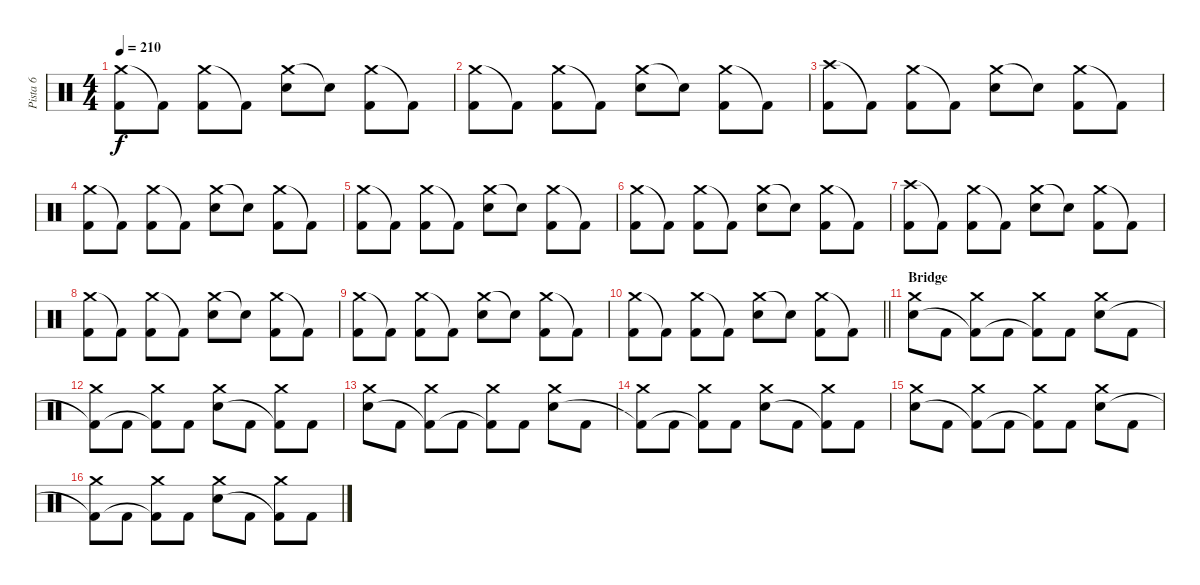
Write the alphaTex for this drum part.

\track ("Pista 6" "Pista 6") {instrument percussion}
\staff {score}
\articulation defaults
\ts (4 4)
\tempo 210
\clef neutral
\ks c
("Crash medium (hit)" "Kick (hit) 2").8{dy f} "Kick (hit) 2"{t}.8 ("Crash medium (hit)" "Kick (hit) 2").8 "Kick (hit) 2"{t}.8 ("Crash medium (hit)" "Electric Snare (hit)").8 "Electric Snare (hit)"{t}.8 ("Crash medium (hit)" "Kick (hit) 2").8 "Kick (hit) 2"{t}.8 |
("Crash medium (hit)" "Kick (hit) 2").8 "Kick (hit) 2"{t}.8 ("Crash medium (hit)" "Kick (hit) 2").8 "Kick (hit) 2"{t}.8 ("Crash medium (hit)" "Electric Snare (hit)").8 "Electric Snare (hit)"{t}.8 ("Crash medium (hit)" "Kick (hit) 2").8 "Kick (hit) 2"{t}.8 |
("Crash high (hit)" "Kick (hit) 2").8 "Kick (hit) 2"{t}.8 ("Crash medium (hit)" "Kick (hit) 2").8 "Kick (hit) 2"{t}.8 ("Crash medium (hit)" "Electric Snare (hit)").8 "Electric Snare (hit)"{t}.8 ("Crash medium (hit)" "Kick (hit) 2").8 "Kick (hit) 2"{t}.8 |
("Crash medium (hit)" "Kick (hit) 2").8 "Kick (hit) 2"{t}.8 ("Crash medium (hit)" "Kick (hit) 2").8 "Kick (hit) 2"{t}.8 ("Crash medium (hit)" "Electric Snare (hit)").8 "Electric Snare (hit)"{t}.8 ("Crash medium (hit)" "Kick (hit) 2").8 "Kick (hit) 2"{t}.8 |
("Crash medium (hit)" "Kick (hit) 2").8 "Kick (hit) 2"{t}.8 ("Crash medium (hit)" "Kick (hit) 2").8 "Kick (hit) 2"{t}.8 ("Crash medium (hit)" "Electric Snare (hit)").8 "Electric Snare (hit)"{t}.8 ("Crash medium (hit)" "Kick (hit) 2").8 "Kick (hit) 2"{t}.8 |
("Crash medium (hit)" "Kick (hit) 2").8 "Kick (hit) 2"{t}.8 ("Crash medium (hit)" "Kick (hit) 2").8 "Kick (hit) 2"{t}.8 ("Crash medium (hit)" "Electric Snare (hit)").8 "Electric Snare (hit)"{t}.8 ("Crash medium (hit)" "Kick (hit) 2").8 "Kick (hit) 2"{t}.8 |
("Crash high (hit)" "Kick (hit) 2").8 "Kick (hit) 2"{t}.8 ("Crash medium (hit)" "Kick (hit) 2").8 "Kick (hit) 2"{t}.8 ("Crash medium (hit)" "Electric Snare (hit)").8 "Electric Snare (hit)"{t}.8 ("Crash medium (hit)" "Kick (hit) 2").8 "Kick (hit) 2"{t}.8 |
("Crash medium (hit)" "Kick (hit) 2").8 "Kick (hit) 2"{t}.8 ("Crash medium (hit)" "Kick (hit) 2").8 "Kick (hit) 2"{t}.8 ("Crash medium (hit)" "Electric Snare (hit)").8 "Electric Snare (hit)"{t}.8 ("Crash medium (hit)" "Kick (hit) 2").8 "Kick (hit) 2"{t}.8 |
("Crash medium (hit)" "Kick (hit) 2").8 "Kick (hit) 2"{t}.8 ("Crash medium (hit)" "Kick (hit) 2").8 "Kick (hit) 2"{t}.8 ("Crash medium (hit)" "Electric Snare (hit)").8 "Electric Snare (hit)"{t}.8 ("Crash medium (hit)" "Kick (hit) 2").8 "Kick (hit) 2"{t}.8 |
\barLineRight lightlight
("Crash medium (hit)" "Kick (hit) 2").8 "Kick (hit) 2"{t}.8 ("Crash medium (hit)" "Kick (hit) 2").8 "Kick (hit) 2"{t}.8 ("Crash medium (hit)" "Electric Snare (hit)").8 "Electric Snare (hit)"{t}.8 ("Crash medium (hit)" "Kick (hit) 2").8 "Kick (hit) 2"{t}.8 |
\section ("" "Bridge")
("Crash medium (hit)" "Electric Snare (hit)").8 "Kick (hit) 2".8 ("Crash medium (hit)" "Kick (hit) 2"{t}).8 "Kick (hit) 2".8 ("Crash medium (hit)" "Kick (hit) 2"{t}).8 "Kick (hit) 2".8 ("Crash medium (hit)" "Electric Snare (hit)").8 "Kick (hit) 2".8 |
("Crash medium (hit)" "Kick (hit) 2"{t}).8 "Kick (hit) 2".8 ("Crash medium (hit)" "Kick (hit) 2"{t}).8 "Kick (hit) 2".8 ("Crash medium (hit)" "Electric Snare (hit)").8 "Kick (hit) 2".8 ("Crash medium (hit)" "Kick (hit) 2"{t}).8 "Kick (hit) 2".8 |
("Crash medium (hit)" "Electric Snare (hit)").8 "Kick (hit) 2".8 ("Crash medium (hit)" "Kick (hit) 2"{t}).8 "Kick (hit) 2".8 ("Crash medium (hit)" "Kick (hit) 2"{t}).8 "Kick (hit) 2".8 ("Crash medium (hit)" "Electric Snare (hit)").8 "Kick (hit) 2".8 |
("Crash medium (hit)" "Kick (hit) 2"{t}).8 "Kick (hit) 2".8 ("Crash medium (hit)" "Kick (hit) 2"{t}).8 "Kick (hit) 2".8 ("Crash medium (hit)" "Electric Snare (hit)").8 "Kick (hit) 2".8 ("Crash medium (hit)" "Kick (hit) 2"{t}).8 "Kick (hit) 2".8 |
("Crash medium (hit)" "Electric Snare (hit)").8 "Kick (hit) 2".8 ("Crash medium (hit)" "Kick (hit) 2"{t}).8 "Kick (hit) 2".8 ("Crash medium (hit)" "Kick (hit) 2"{t}).8 "Kick (hit) 2".8 ("Crash medium (hit)" "Electric Snare (hit)").8 "Kick (hit) 2".8 |
("Crash medium (hit)" "Kick (hit) 2"{t}).8 "Kick (hit) 2".8 ("Crash medium (hit)" "Kick (hit) 2"{t}).8 "Kick (hit) 2".8 ("Crash medium (hit)" "Electric Snare (hit)").8 "Kick (hit) 2".8 ("Crash medium (hit)" "Kick (hit) 2"{t}).8 "Kick (hit) 2".8
